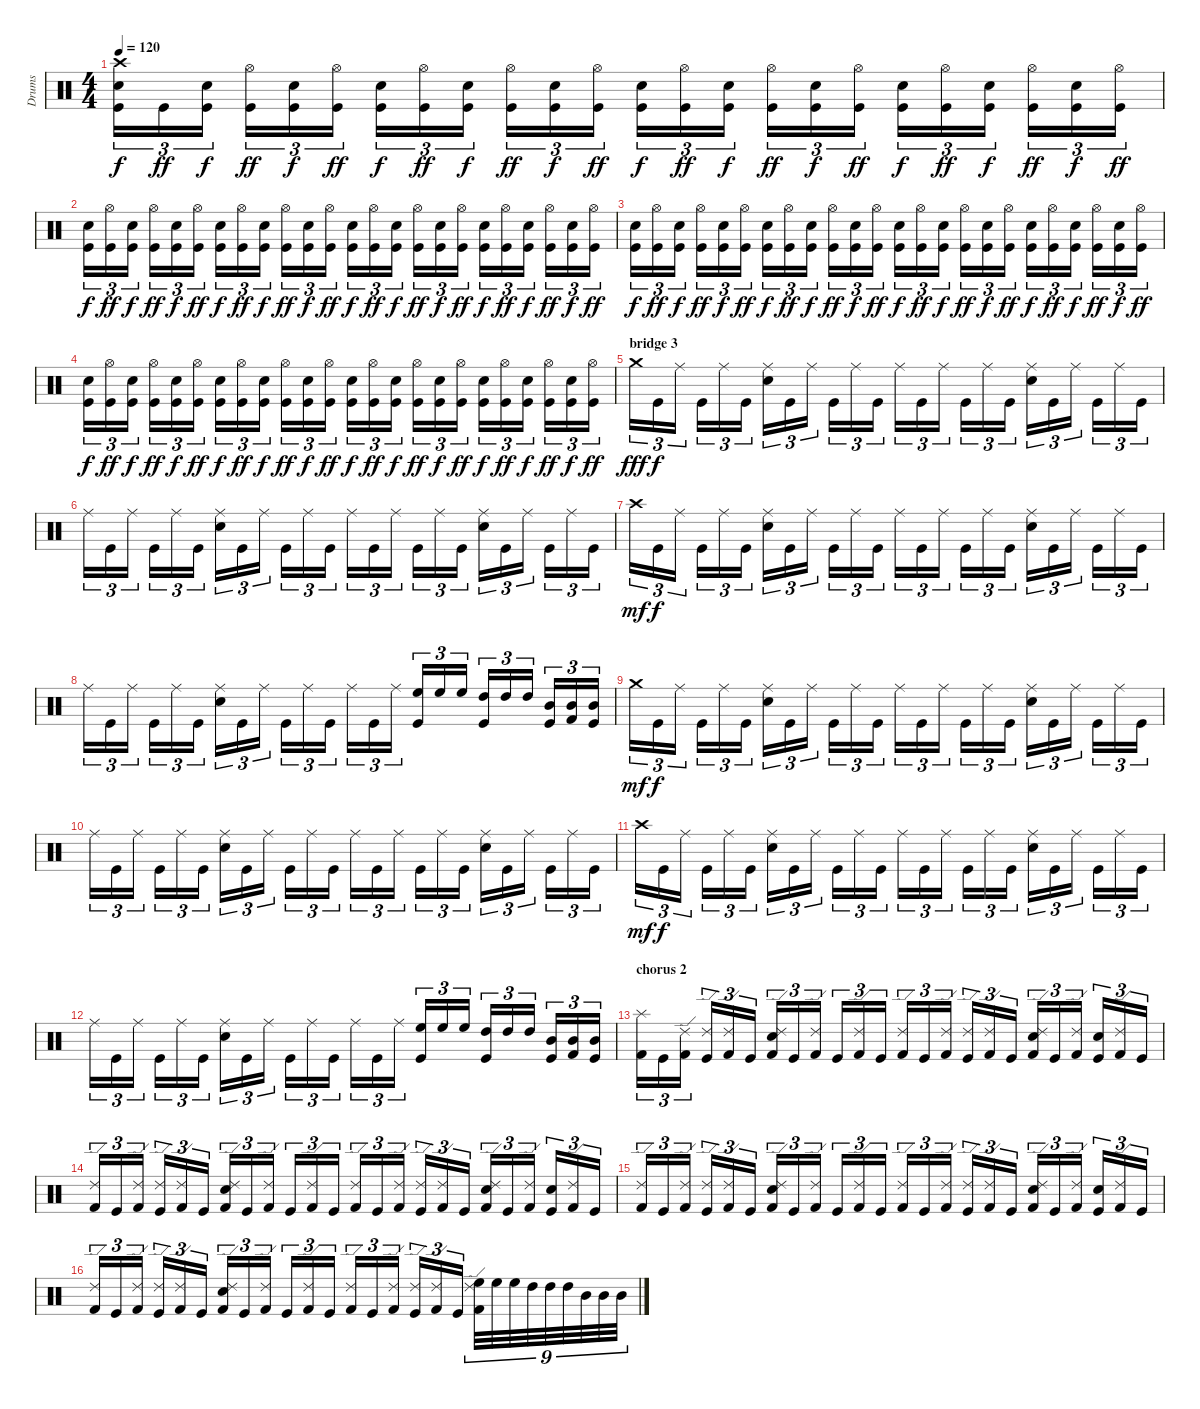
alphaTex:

\track ("Drums" "Drums") {instrument percussion}
\staff {score}
\articulation defaults
\ts (4 4)
\tempo 120
\clef neutral
\ks c
("Crash high (hit)" "Snare (hit) 2" "Kick (hit)").16{tu (3 2) dy f} "Kick (hit)".16{tu (3 2) dy ff} ("Snare (hit) 2" "Kick (hit)").16{tu (3 2) dy f} ("Hi-Hat (open)" "Kick (hit)").16{tu (3 2) dy ff} ("Snare (hit) 2" "Kick (hit)").16{tu (3 2) dy f} ("Hi-Hat (open)" "Kick (hit)").16{tu (3 2) dy ff} ("Snare (hit) 2" "Kick (hit)").16{tu (3 2) dy f} ("Hi-Hat (open)" "Kick (hit)").16{tu (3 2) dy ff} ("Snare (hit) 2" "Kick (hit)").16{tu (3 2) dy f} ("Hi-Hat (open)" "Kick (hit)").16{tu (3 2) dy ff} ("Snare (hit) 2" "Kick (hit)").16{tu (3 2) dy f} ("Hi-Hat (open)" "Kick (hit)").16{tu (3 2) dy ff} ("Snare (hit) 2" "Kick (hit)").16{tu (3 2) dy f} ("Hi-Hat (open)" "Kick (hit)").16{tu (3 2) dy ff} ("Snare (hit) 2" "Kick (hit)").16{tu (3 2) dy f} ("Hi-Hat (open)" "Kick (hit)").16{tu (3 2) dy ff} ("Snare (hit) 2" "Kick (hit)").16{tu (3 2) dy f} ("Hi-Hat (open)" "Kick (hit)").16{tu (3 2) dy ff} ("Snare (hit) 2" "Kick (hit)").16{tu (3 2) dy f} ("Hi-Hat (open)" "Kick (hit)").16{tu (3 2) dy ff} ("Snare (hit) 2" "Kick (hit)").16{tu (3 2) dy f} ("Hi-Hat (open)" "Kick (hit)").16{tu (3 2) dy ff} ("Snare (hit) 2" "Kick (hit)").16{tu (3 2) dy f} ("Hi-Hat (open)" "Kick (hit)").16{tu (3 2) dy ff} |
("Snare (hit) 2" "Kick (hit)").16{tu (3 2) dy f} ("Hi-Hat (open)" "Kick (hit)").16{tu (3 2) dy ff} ("Snare (hit) 2" "Kick (hit)").16{tu (3 2) dy f} ("Hi-Hat (open)" "Kick (hit)").16{tu (3 2) dy ff} ("Snare (hit) 2" "Kick (hit)").16{tu (3 2) dy f} ("Hi-Hat (open)" "Kick (hit)").16{tu (3 2) dy ff} ("Snare (hit) 2" "Kick (hit)").16{tu (3 2) dy f} ("Hi-Hat (open)" "Kick (hit)").16{tu (3 2) dy ff} ("Snare (hit) 2" "Kick (hit)").16{tu (3 2) dy f} ("Hi-Hat (open)" "Kick (hit)").16{tu (3 2) dy ff} ("Snare (hit) 2" "Kick (hit)").16{tu (3 2) dy f} ("Hi-Hat (open)" "Kick (hit)").16{tu (3 2) dy ff} ("Snare (hit) 2" "Kick (hit)").16{tu (3 2) dy f} ("Hi-Hat (open)" "Kick (hit)").16{tu (3 2) dy ff} ("Snare (hit) 2" "Kick (hit)").16{tu (3 2) dy f} ("Hi-Hat (open)" "Kick (hit)").16{tu (3 2) dy ff} ("Snare (hit) 2" "Kick (hit)").16{tu (3 2) dy f} ("Hi-Hat (open)" "Kick (hit)").16{tu (3 2) dy ff} ("Snare (hit) 2" "Kick (hit)").16{tu (3 2) dy f} ("Hi-Hat (open)" "Kick (hit)").16{tu (3 2) dy ff} ("Snare (hit) 2" "Kick (hit)").16{tu (3 2) dy f} ("Hi-Hat (open)" "Kick (hit)").16{tu (3 2) dy ff} ("Snare (hit) 2" "Kick (hit)").16{tu (3 2) dy f} ("Hi-Hat (open)" "Kick (hit)").16{tu (3 2) dy ff} |
("Snare (hit) 2" "Kick (hit)").16{tu (3 2) dy f} ("Hi-Hat (open)" "Kick (hit)").16{tu (3 2) dy ff} ("Snare (hit) 2" "Kick (hit)").16{tu (3 2) dy f} ("Hi-Hat (open)" "Kick (hit)").16{tu (3 2) dy ff} ("Snare (hit) 2" "Kick (hit)").16{tu (3 2) dy f} ("Hi-Hat (open)" "Kick (hit)").16{tu (3 2) dy ff} ("Snare (hit) 2" "Kick (hit)").16{tu (3 2) dy f} ("Hi-Hat (open)" "Kick (hit)").16{tu (3 2) dy ff} ("Snare (hit) 2" "Kick (hit)").16{tu (3 2) dy f} ("Hi-Hat (open)" "Kick (hit)").16{tu (3 2) dy ff} ("Snare (hit) 2" "Kick (hit)").16{tu (3 2) dy f} ("Hi-Hat (open)" "Kick (hit)").16{tu (3 2) dy ff} ("Snare (hit) 2" "Kick (hit)").16{tu (3 2) dy f} ("Hi-Hat (open)" "Kick (hit)").16{tu (3 2) dy ff} ("Snare (hit) 2" "Kick (hit)").16{tu (3 2) dy f} ("Hi-Hat (open)" "Kick (hit)").16{tu (3 2) dy ff} ("Snare (hit) 2" "Kick (hit)").16{tu (3 2) dy f} ("Hi-Hat (open)" "Kick (hit)").16{tu (3 2) dy ff} ("Snare (hit) 2" "Kick (hit)").16{tu (3 2) dy f} ("Hi-Hat (open)" "Kick (hit)").16{tu (3 2) dy ff} ("Snare (hit) 2" "Kick (hit)").16{tu (3 2) dy f} ("Hi-Hat (open)" "Kick (hit)").16{tu (3 2) dy ff} ("Snare (hit) 2" "Kick (hit)").16{tu (3 2) dy f} ("Hi-Hat (open)" "Kick (hit)").16{tu (3 2) dy ff} |
("Snare (hit) 2" "Kick (hit)").16{tu (3 2) dy f} ("Hi-Hat (open)" "Kick (hit)").16{tu (3 2) dy ff} ("Snare (hit) 2" "Kick (hit)").16{tu (3 2) dy f} ("Hi-Hat (open)" "Kick (hit)").16{tu (3 2) dy ff} ("Snare (hit) 2" "Kick (hit)").16{tu (3 2) dy f} ("Hi-Hat (open)" "Kick (hit)").16{tu (3 2) dy ff} ("Snare (hit) 2" "Kick (hit)").16{tu (3 2) dy f} ("Hi-Hat (open)" "Kick (hit)").16{tu (3 2) dy ff} ("Snare (hit) 2" "Kick (hit)").16{tu (3 2) dy f} ("Hi-Hat (open)" "Kick (hit)").16{tu (3 2) dy ff} ("Snare (hit) 2" "Kick (hit)").16{tu (3 2) dy f} ("Hi-Hat (open)" "Kick (hit)").16{tu (3 2) dy ff} ("Snare (hit) 2" "Kick (hit)").16{tu (3 2) dy f} ("Hi-Hat (open)" "Kick (hit)").16{tu (3 2) dy ff} ("Snare (hit) 2" "Kick (hit)").16{tu (3 2) dy f} ("Hi-Hat (open)" "Kick (hit)").16{tu (3 2) dy ff} ("Snare (hit) 2" "Kick (hit)").16{tu (3 2) dy f} ("Hi-Hat (open)" "Kick (hit)").16{tu (3 2) dy ff} ("Snare (hit) 2" "Kick (hit)").16{tu (3 2) dy f} ("Hi-Hat (open)" "Kick (hit)").16{tu (3 2) dy ff} ("Snare (hit) 2" "Kick (hit)").16{tu (3 2) dy f} ("Hi-Hat (open)" "Kick (hit)").16{tu (3 2) dy ff} ("Snare (hit) 2" "Kick (hit)").16{tu (3 2) dy f} ("Hi-Hat (open)" "Kick (hit)").16{tu (3 2) dy ff} |
\section ("" "bridge 3")
"Crash medium (hit)".16{tu (3 2) dy fff} "Kick (hit)".16{tu (3 2) dy f} "Ride (middle)".16{tu (3 2)} "Kick (hit)".16{tu (3 2)} "Ride (middle)".16{tu (3 2)} "Kick (hit)".16{tu (3 2)} ("Ride (middle)" "Snare (hit) 2").16{tu (3 2)} "Kick (hit)".16{tu (3 2)} "Ride (middle)".16{tu (3 2)} "Kick (hit)".16{tu (3 2)} "Ride (middle)".16{tu (3 2)} "Kick (hit)".16{tu (3 2)} "Ride (middle)".16{tu (3 2)} "Kick (hit)".16{tu (3 2)} "Ride (middle)".16{tu (3 2)} "Kick (hit)".16{tu (3 2)} "Ride (middle)".16{tu (3 2)} "Kick (hit)".16{tu (3 2)} ("Ride (middle)" "Snare (hit) 2").16{tu (3 2)} "Kick (hit)".16{tu (3 2)} "Ride (middle)".16{tu (3 2)} "Kick (hit)".16{tu (3 2)} "Ride (middle)".16{tu (3 2)} "Kick (hit)".16{tu (3 2)} |
"Ride (middle)".16{tu (3 2)} "Kick (hit)".16{tu (3 2)} "Ride (middle)".16{tu (3 2)} "Kick (hit)".16{tu (3 2)} "Ride (middle)".16{tu (3 2)} "Kick (hit)".16{tu (3 2)} ("Ride (middle)" "Snare (hit) 2").16{tu (3 2)} "Kick (hit)".16{tu (3 2)} "Ride (middle)".16{tu (3 2)} "Kick (hit)".16{tu (3 2)} "Ride (middle)".16{tu (3 2)} "Kick (hit)".16{tu (3 2)} "Ride (middle)".16{tu (3 2)} "Kick (hit)".16{tu (3 2)} "Ride (middle)".16{tu (3 2)} "Kick (hit)".16{tu (3 2)} "Ride (middle)".16{tu (3 2)} "Kick (hit)".16{tu (3 2)} ("Ride (middle)" "Snare (hit) 2").16{tu (3 2)} "Kick (hit)".16{tu (3 2)} "Ride (middle)".16{tu (3 2)} "Kick (hit)".16{tu (3 2)} "Ride (middle)".16{tu (3 2)} "Kick (hit)".16{tu (3 2)} |
"Crash high (hit)".16{tu (3 2) dy mf} "Kick (hit)".16{tu (3 2) dy f} "Ride (middle)".16{tu (3 2)} "Kick (hit)".16{tu (3 2)} "Ride (middle)".16{tu (3 2)} "Kick (hit)".16{tu (3 2)} ("Ride (middle)" "Snare (hit) 2").16{tu (3 2)} "Kick (hit)".16{tu (3 2)} "Ride (middle)".16{tu (3 2)} "Kick (hit)".16{tu (3 2)} "Ride (middle)".16{tu (3 2)} "Kick (hit)".16{tu (3 2)} "Ride (middle)".16{tu (3 2)} "Kick (hit)".16{tu (3 2)} "Ride (middle)".16{tu (3 2)} "Kick (hit)".16{tu (3 2)} "Ride (middle)".16{tu (3 2)} "Kick (hit)".16{tu (3 2)} ("Ride (middle)" "Snare (hit) 2").16{tu (3 2)} "Kick (hit)".16{tu (3 2)} "Ride (middle)".16{tu (3 2)} "Kick (hit)".16{tu (3 2)} "Ride (middle)".16{tu (3 2)} "Kick (hit)".16{tu (3 2)} |
"Ride (middle)".16{tu (3 2)} "Kick (hit)".16{tu (3 2)} "Ride (middle)".16{tu (3 2)} "Kick (hit)".16{tu (3 2)} "Ride (middle)".16{tu (3 2)} "Kick (hit)".16{tu (3 2)} ("Ride (middle)" "Snare (hit) 2").16{tu (3 2)} "Kick (hit)".16{tu (3 2)} "Ride (middle)".16{tu (3 2)} "Kick (hit)".16{tu (3 2)} "Ride (middle)".16{tu (3 2)} "Kick (hit)".16{tu (3 2)} "Ride (middle)".16{tu (3 2)} "Kick (hit)".16{tu (3 2)} "Ride (middle)".16{tu (3 2)} ("High Floor Tom (hit)" "Kick (hit)").16{tu (3 2)} "High Floor Tom (hit)".16{tu (3 2)} "High Floor Tom (hit)".16{tu (3 2)} ("High Tom (hit)" "Kick (hit)").16{tu (3 2)} "High Tom (hit)".16{tu (3 2)} "High Tom (hit)".16{tu (3 2)} ("Mid Tom (hit)" "Kick (hit)").16{tu (3 2)} ("Mid Tom (hit)" "Kick (hit) 2").16{tu (3 2)} ("Mid Tom (hit)" "Kick (hit)").16{tu (3 2)} |
"Crash medium (hit)".16{tu (3 2) dy mf} "Kick (hit)".16{tu (3 2) dy f} "Ride (middle)".16{tu (3 2)} "Kick (hit)".16{tu (3 2)} "Ride (middle)".16{tu (3 2)} "Kick (hit)".16{tu (3 2)} ("Ride (middle)" "Snare (hit) 2").16{tu (3 2)} "Kick (hit)".16{tu (3 2)} "Ride (middle)".16{tu (3 2)} "Kick (hit)".16{tu (3 2)} "Ride (middle)".16{tu (3 2)} "Kick (hit)".16{tu (3 2)} "Ride (middle)".16{tu (3 2)} "Kick (hit)".16{tu (3 2)} "Ride (middle)".16{tu (3 2)} "Kick (hit)".16{tu (3 2)} "Ride (middle)".16{tu (3 2)} "Kick (hit)".16{tu (3 2)} ("Ride (middle)" "Snare (hit) 2").16{tu (3 2)} "Kick (hit)".16{tu (3 2)} "Ride (middle)".16{tu (3 2)} "Kick (hit)".16{tu (3 2)} "Ride (middle)".16{tu (3 2)} "Kick (hit)".16{tu (3 2)} |
"Ride (middle)".16{tu (3 2)} "Kick (hit)".16{tu (3 2)} "Ride (middle)".16{tu (3 2)} "Kick (hit)".16{tu (3 2)} "Ride (middle)".16{tu (3 2)} "Kick (hit)".16{tu (3 2)} ("Ride (middle)" "Snare (hit) 2").16{tu (3 2)} "Kick (hit)".16{tu (3 2)} "Ride (middle)".16{tu (3 2)} "Kick (hit)".16{tu (3 2)} "Ride (middle)".16{tu (3 2)} "Kick (hit)".16{tu (3 2)} "Ride (middle)".16{tu (3 2)} "Kick (hit)".16{tu (3 2)} "Ride (middle)".16{tu (3 2)} "Kick (hit)".16{tu (3 2)} "Ride (middle)".16{tu (3 2)} "Kick (hit)".16{tu (3 2)} ("Ride (middle)" "Snare (hit) 2").16{tu (3 2)} "Kick (hit)".16{tu (3 2)} "Ride (middle)".16{tu (3 2)} "Kick (hit)".16{tu (3 2)} "Ride (middle)".16{tu (3 2)} "Kick (hit)".16{tu (3 2)} |
"Crash high (hit)".16{tu (3 2) dy mf} "Kick (hit)".16{tu (3 2) dy f} "Ride (middle)".16{tu (3 2)} "Kick (hit)".16{tu (3 2)} "Ride (middle)".16{tu (3 2)} "Kick (hit)".16{tu (3 2)} ("Ride (middle)" "Snare (hit) 2").16{tu (3 2)} "Kick (hit)".16{tu (3 2)} "Ride (middle)".16{tu (3 2)} "Kick (hit)".16{tu (3 2)} "Ride (middle)".16{tu (3 2)} "Kick (hit)".16{tu (3 2)} "Ride (middle)".16{tu (3 2)} "Kick (hit)".16{tu (3 2)} "Ride (middle)".16{tu (3 2)} "Kick (hit)".16{tu (3 2)} "Ride (middle)".16{tu (3 2)} "Kick (hit)".16{tu (3 2)} ("Ride (middle)" "Snare (hit) 2").16{tu (3 2)} "Kick (hit)".16{tu (3 2)} "Ride (middle)".16{tu (3 2)} "Kick (hit)".16{tu (3 2)} "Ride (middle)".16{tu (3 2)} "Kick (hit)".16{tu (3 2)} |
"Ride (middle)".16{tu (3 2)} "Kick (hit)".16{tu (3 2)} "Ride (middle)".16{tu (3 2)} "Kick (hit)".16{tu (3 2)} "Ride (middle)".16{tu (3 2)} "Kick (hit)".16{tu (3 2)} ("Ride (middle)" "Snare (hit) 2").16{tu (3 2)} "Kick (hit)".16{tu (3 2)} "Ride (middle)".16{tu (3 2)} "Kick (hit)".16{tu (3 2)} "Ride (middle)".16{tu (3 2)} "Kick (hit)".16{tu (3 2)} "Ride (middle)".16{tu (3 2)} "Kick (hit)".16{tu (3 2)} "Ride (middle)".16{tu (3 2)} ("High Floor Tom (hit)" "Kick (hit)").16{tu (3 2)} "High Floor Tom (hit)".16{tu (3 2)} "High Floor Tom (hit)".16{tu (3 2)} ("High Tom (hit)" "Kick (hit)").16{tu (3 2)} "High Tom (hit)".16{tu (3 2)} "High Tom (hit)".16{tu (3 2)} ("Mid Tom (hit)" "Kick (hit)").16{tu (3 2)} ("Mid Tom (hit)" "Kick (hit) 2").16{tu (3 2)} ("Mid Tom (hit)" "Kick (hit)").16{tu (3 2)} |
\section ("" "chorus 2")
("Splash (hit)" "Kick (hit) 2").16{tu (3 2)} "Kick (hit)".16{tu (3 2)} ("Ride (edge) 2" "Kick (hit) 2").16{tu (3 2)} ("Ride (edge) 2" "Kick (hit)").16{tu (3 2)} ("Ride (edge) 2" "Kick (hit) 2").16{tu (3 2)} "Kick (hit)".16{tu (3 2)} ("Ride (edge) 2" "Snare (hit) 2" "Kick (hit) 2").16{tu (3 2)} "Kick (hit)".16{tu (3 2)} ("Ride (edge) 2" "Kick (hit) 2").16{tu (3 2)} "Kick (hit)".16{tu (3 2)} ("Ride (edge) 2" "Kick (hit) 2").16{tu (3 2)} "Kick (hit)".16{tu (3 2)} ("Ride (edge) 2" "Kick (hit) 2").16{tu (3 2)} "Kick (hit)".16{tu (3 2)} ("Ride (edge) 2" "Kick (hit) 2").16{tu (3 2)} ("Ride (edge) 2" "Kick (hit)").16{tu (3 2)} ("Ride (edge) 2" "Kick (hit) 2").16{tu (3 2)} "Kick (hit)".16{tu (3 2)} ("Ride (edge) 2" "Snare (hit) 2" "Kick (hit) 2").16{tu (3 2)} "Kick (hit)".16{tu (3 2)} ("Ride (edge) 2" "Kick (hit) 2").16{tu (3 2)} ("Snare (hit) 2" "Kick (hit)").16{tu (3 2)} ("Ride (edge) 2" "Kick (hit) 2").16{tu (3 2)} "Kick (hit)".16{tu (3 2)} |
("Ride (edge) 2" "Kick (hit) 2").16{tu (3 2)} "Kick (hit)".16{tu (3 2)} ("Ride (edge) 2" "Kick (hit) 2").16{tu (3 2)} ("Ride (edge) 2" "Kick (hit)").16{tu (3 2)} ("Ride (edge) 2" "Kick (hit) 2").16{tu (3 2)} "Kick (hit)".16{tu (3 2)} ("Ride (edge) 2" "Snare (hit) 2" "Kick (hit) 2").16{tu (3 2)} "Kick (hit)".16{tu (3 2)} ("Ride (edge) 2" "Kick (hit) 2").16{tu (3 2)} "Kick (hit)".16{tu (3 2)} ("Ride (edge) 2" "Kick (hit) 2").16{tu (3 2)} "Kick (hit)".16{tu (3 2)} ("Ride (edge) 2" "Kick (hit) 2").16{tu (3 2)} "Kick (hit)".16{tu (3 2)} ("Ride (edge) 2" "Kick (hit) 2").16{tu (3 2)} ("Ride (edge) 2" "Kick (hit)").16{tu (3 2)} ("Ride (edge) 2" "Kick (hit) 2").16{tu (3 2)} "Kick (hit)".16{tu (3 2)} ("Ride (edge) 2" "Snare (hit) 2" "Kick (hit) 2").16{tu (3 2)} "Kick (hit)".16{tu (3 2)} ("Ride (edge) 2" "Kick (hit) 2").16{tu (3 2)} ("Snare (hit) 2" "Kick (hit)").16{tu (3 2)} ("Ride (edge) 2" "Kick (hit) 2").16{tu (3 2)} "Kick (hit)".16{tu (3 2)} |
("Ride (edge) 2" "Kick (hit) 2").16{tu (3 2)} "Kick (hit)".16{tu (3 2)} ("Ride (edge) 2" "Kick (hit) 2").16{tu (3 2)} ("Ride (edge) 2" "Kick (hit)").16{tu (3 2)} ("Ride (edge) 2" "Kick (hit) 2").16{tu (3 2)} "Kick (hit)".16{tu (3 2)} ("Ride (edge) 2" "Snare (hit) 2" "Kick (hit) 2").16{tu (3 2)} "Kick (hit)".16{tu (3 2)} ("Ride (edge) 2" "Kick (hit) 2").16{tu (3 2)} "Kick (hit)".16{tu (3 2)} ("Ride (edge) 2" "Kick (hit) 2").16{tu (3 2)} "Kick (hit)".16{tu (3 2)} ("Ride (edge) 2" "Kick (hit) 2").16{tu (3 2)} "Kick (hit)".16{tu (3 2)} ("Ride (edge) 2" "Kick (hit) 2").16{tu (3 2)} ("Ride (edge) 2" "Kick (hit)").16{tu (3 2)} ("Ride (edge) 2" "Kick (hit) 2").16{tu (3 2)} "Kick (hit)".16{tu (3 2)} ("Ride (edge) 2" "Snare (hit) 2" "Kick (hit) 2").16{tu (3 2)} "Kick (hit)".16{tu (3 2)} ("Ride (edge) 2" "Kick (hit) 2").16{tu (3 2)} ("Snare (hit) 2" "Kick (hit)").16{tu (3 2)} ("Ride (edge) 2" "Kick (hit) 2").16{tu (3 2)} "Kick (hit)".16{tu (3 2)} |
("Ride (edge) 2" "Kick (hit) 2").16{tu (3 2)} "Kick (hit)".16{tu (3 2)} ("Ride (edge) 2" "Kick (hit) 2").16{tu (3 2)} ("Ride (edge) 2" "Kick (hit)").16{tu (3 2)} ("Ride (edge) 2" "Kick (hit) 2").16{tu (3 2)} "Kick (hit)".16{tu (3 2)} ("Ride (edge) 2" "Snare (hit) 2" "Kick (hit) 2").16{tu (3 2)} "Kick (hit)".16{tu (3 2)} ("Ride (edge) 2" "Kick (hit) 2").16{tu (3 2)} "Kick (hit)".16{tu (3 2)} ("Ride (edge) 2" "Kick (hit) 2").16{tu (3 2)} "Kick (hit)".16{tu (3 2)} ("Ride (edge) 2" "Kick (hit) 2").16{tu (3 2)} "Kick (hit)".16{tu (3 2)} ("Ride (edge) 2" "Kick (hit) 2").16{tu (3 2)} ("Ride (edge) 2" "Kick (hit)").16{tu (3 2)} ("Ride (edge) 2" "Kick (hit) 2").16{tu (3 2)} "Kick (hit)".16{tu (3 2)} ("Ride (edge) 2" "High Floor Tom (hit)" "Kick (hit) 2").32{tu (9 8)} "High Floor Tom (hit)".32{tu (9 8)} "High Floor Tom (hit)".32{tu (9 8)} "High Tom (hit)".32{tu (9 8)} "High Tom (hit)".32{tu (9 8)} "High Tom (hit)".32{tu (9 8)} "Mid Tom (hit)".32{tu (9 8)} "Mid Tom (hit)".32{tu (9 8)} "Mid Tom (hit)".32{tu (9 8)}
